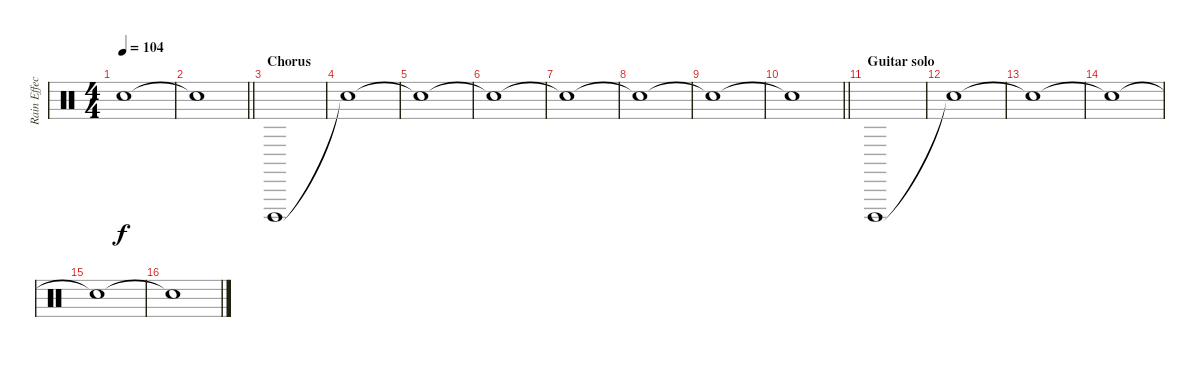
\track ("Rain Effect" "Rain Effec") {instrument percussion}
\staff {score}
\articulation defaults
\ts (4 4)
\tempo 104
\clef neutral
\ks c "Snare (hit)"{t}.1{dy f}
|
\barLineRight lightlight "Snare (hit)"{t}.1
|
\section ("" "Chorus")
"Cuica (open)".1 |
"Snare (hit)"{t}.1 |
"Snare (hit)"{t}.1 |
"Snare (hit)"{t}.1 |
"Snare (hit)"{t}.1 |
"Snare (hit)"{t}.1 |
"Snare (hit)"{t}.1 |
\barLineRight lightlight "Snare (hit)"{t}.1
|
\section ("" "Guitar solo")
"Cuica (open)".1 |
"Snare (hit)"{t}.1 |
"Snare (hit)"{t}.1 |
"Snare (hit)"{t}.1 |
"Snare (hit)"{t}.1 |
"Snare (hit)"{t}.1
